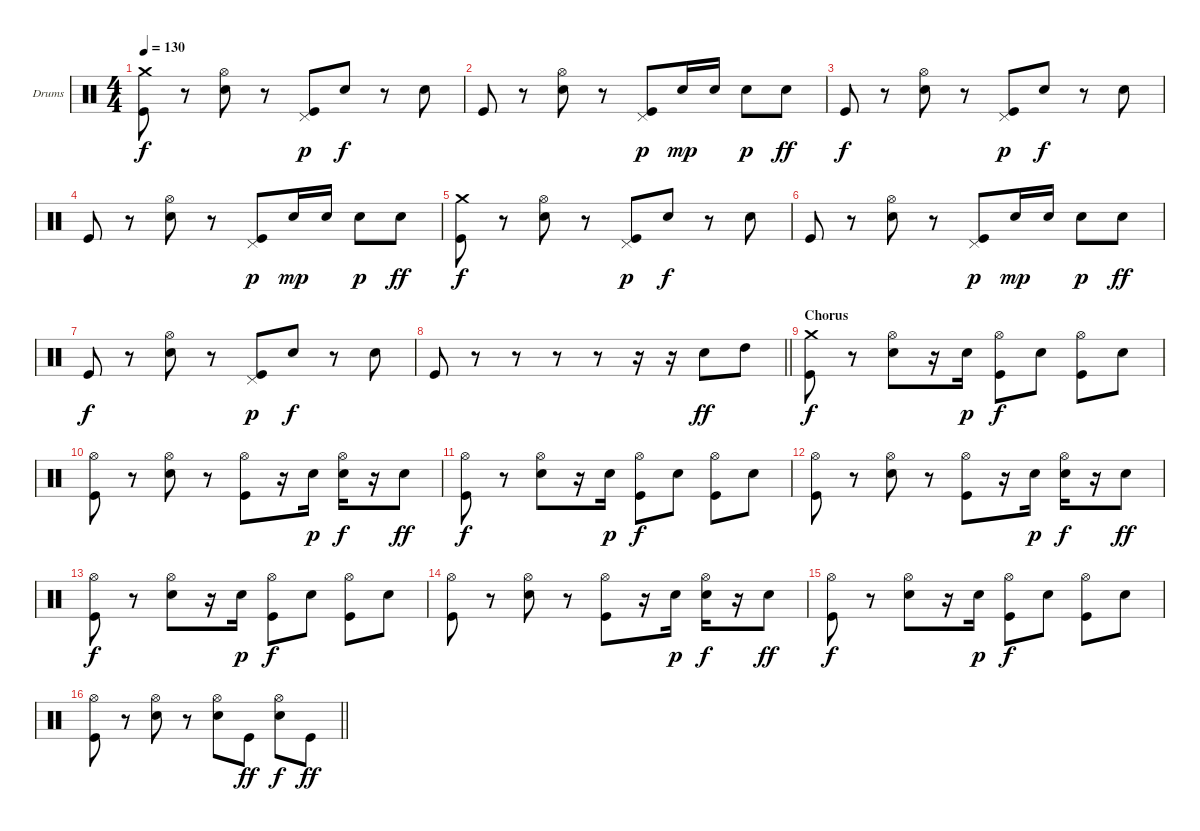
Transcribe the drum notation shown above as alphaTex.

\bracketExtendMode groupsimilarinstruments
\firstSystemTrackNameOrientation horizontal
\otherSystemsTrackNameOrientation horizontal
\track ("Drumkit" "Drums") {instrument percussion}
\staff {score}
\articulation defaults
\ts (4 4)
\tempo 130
\clef neutral
\ks c
("Crash medium (hit)" "Kick (hit)").8{dy f} r.8 ("Hi-Hat (open)" "Snare (hit) 2").8 r.8 ("Pedal Hi-Hat (hit)" "Kick (hit)").8{dy p} "Snare (hit) 2".8{dy f} r.8 "Snare (hit) 2".8 |
"Kick (hit)".8 r.8 ("Hi-Hat (open)" "Snare (hit) 2").8 r.8 ("Pedal Hi-Hat (hit)" "Kick (hit)").8{dy p} "Snare (hit) 2".16{dy mp} "Snare (hit) 2".16 "Snare (hit) 2".8{dy p} "Snare (hit) 2".8{dy ff} |
"Kick (hit)".8{dy f} r.8 ("Hi-Hat (open)" "Snare (hit) 2").8 r.8 ("Pedal Hi-Hat (hit)" "Kick (hit)").8{dy p} "Snare (hit) 2".8{dy f} r.8 "Snare (hit) 2".8 |
"Kick (hit)".8 r.8 ("Hi-Hat (open)" "Snare (hit) 2").8 r.8 ("Pedal Hi-Hat (hit)" "Kick (hit)").8{dy p} "Snare (hit) 2".16{dy mp} "Snare (hit) 2".16 "Snare (hit) 2".8{dy p} "Snare (hit) 2".8{dy ff} |
("Crash medium (hit)" "Kick (hit)").8{dy f} r.8 ("Hi-Hat (open)" "Snare (hit) 2").8 r.8 ("Pedal Hi-Hat (hit)" "Kick (hit)").8{dy p} "Snare (hit) 2".8{dy f} r.8 "Snare (hit) 2".8 |
"Kick (hit)".8 r.8 ("Hi-Hat (open)" "Snare (hit) 2").8 r.8 ("Pedal Hi-Hat (hit)" "Kick (hit)").8{dy p} "Snare (hit) 2".16{dy mp} "Snare (hit) 2".16 "Snare (hit) 2".8{dy p} "Snare (hit) 2".8{dy ff} |
"Kick (hit)".8{dy f} r.8 ("Hi-Hat (open)" "Snare (hit) 2").8 r.8 ("Pedal Hi-Hat (hit)" "Kick (hit)").8{dy p} "Snare (hit) 2".8{dy f} r.8 "Snare (hit) 2".8 |
\barLineRight lightlight "Kick (hit)".8
r.8 r.8 r.8 r.8 r.16 r.16 "Snare (hit) 2".8{dy ff} "High Tom (hit)".8 |
\section ("" "Chorus")
("Crash medium (hit)" "Kick (hit)").8{dy f} r.8 ("Hi-Hat (open)" "Snare (hit) 2").8 r.16 "Snare (hit) 2".16{dy p} ("Hi-Hat (open)" "Kick (hit)").8{dy f} "Snare (hit) 2".8 ("Hi-Hat (open)" "Kick (hit)").8 "Snare (hit) 2".8 |
("Hi-Hat (open)" "Kick (hit)").8 r.8 ("Hi-Hat (open)" "Snare (hit) 2").8 r.8 ("Hi-Hat (open)" "Kick (hit)").8 r.16 "Snare (hit) 2".16{dy p} ("Hi-Hat (open)" "Snare (hit) 2").16{dy f} r.16 "Snare (hit) 2".8{dy ff} |
("Hi-Hat (open)" "Kick (hit)").8{dy f} r.8 ("Hi-Hat (open)" "Snare (hit) 2").8 r.16 "Snare (hit) 2".16{dy p} ("Hi-Hat (open)" "Kick (hit)").8{dy f} "Snare (hit) 2".8 ("Hi-Hat (open)" "Kick (hit)").8 "Snare (hit) 2".8 |
("Hi-Hat (open)" "Kick (hit)").8 r.8 ("Hi-Hat (open)" "Snare (hit) 2").8 r.8 ("Hi-Hat (open)" "Kick (hit)").8 r.16 "Snare (hit) 2".16{dy p} ("Hi-Hat (open)" "Snare (hit) 2").16{dy f} r.16 "Snare (hit) 2".8{dy ff} |
("Hi-Hat (open)" "Kick (hit)").8{dy f} r.8 ("Hi-Hat (open)" "Snare (hit) 2").8 r.16 "Snare (hit) 2".16{dy p} ("Hi-Hat (open)" "Kick (hit)").8{dy f} "Snare (hit) 2".8 ("Hi-Hat (open)" "Kick (hit)").8 "Snare (hit) 2".8 |
("Hi-Hat (open)" "Kick (hit)").8 r.8 ("Hi-Hat (open)" "Snare (hit) 2").8 r.8 ("Hi-Hat (open)" "Kick (hit)").8 r.16 "Snare (hit) 2".16{dy p} ("Hi-Hat (open)" "Snare (hit) 2").16{dy f} r.16 "Snare (hit) 2".8{dy ff} |
("Hi-Hat (open)" "Kick (hit)").8{dy f} r.8 ("Hi-Hat (open)" "Snare (hit) 2").8 r.16 "Snare (hit) 2".16{dy p} ("Hi-Hat (open)" "Kick (hit)").8{dy f} "Snare (hit) 2".8 ("Hi-Hat (open)" "Kick (hit)").8 "Snare (hit) 2".8 |
\barLineRight lightlight
("Hi-Hat (open)" "Kick (hit)").8 r.8 ("Hi-Hat (open)" "Snare (hit) 2").8 r.8 ("Hi-Hat (open)" "Snare (hit) 2").8 "Kick (hit)".8{dy ff} ("Hi-Hat (open)" "Snare (hit) 2").8{dy f} "Kick (hit)".8{dy ff}
